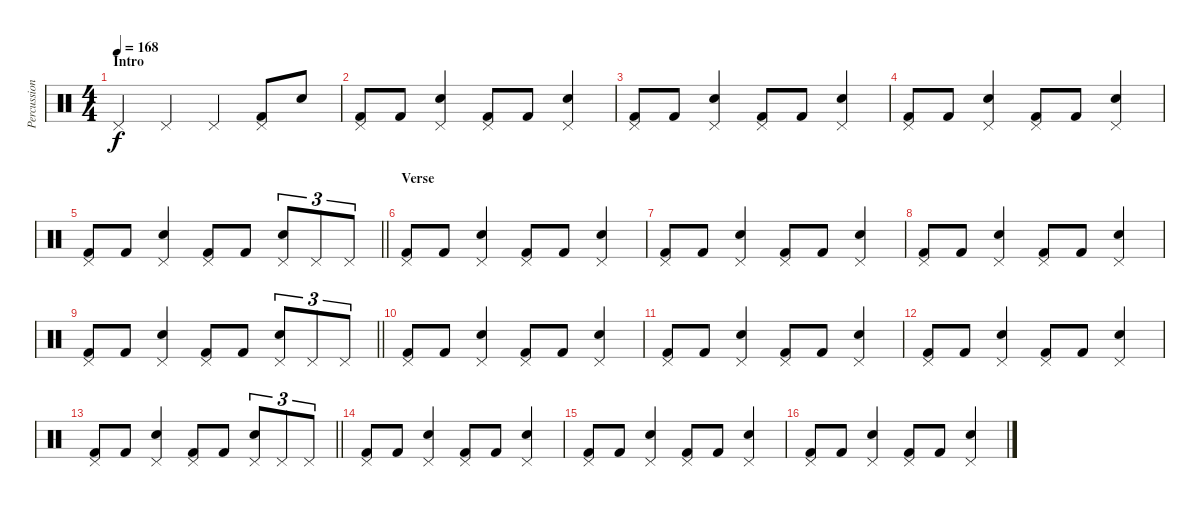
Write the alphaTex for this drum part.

\track ("Percussion" "Percussion") {instrument percussion}
\staff {score}
\articulation defaults
\ts (4 4)
\section ("" "Intro")
\tempo 168
\clef neutral
\ks c "Pedal Hi-Hat (hit)".4{dy f} "Pedal Hi-Hat (hit)".4 "Pedal Hi-Hat (hit)".4
("Pedal Hi-Hat (hit)" "Kick (hit) 2").8 "Electric Snare (hit)".8 |
("Pedal Hi-Hat (hit)" "Kick (hit) 2").8 "Kick (hit) 2".8 ("Pedal Hi-Hat (hit)" "Electric Snare (hit)").4 ("Pedal Hi-Hat (hit)" "Kick (hit) 2").8 "Kick (hit) 2".8 ("Pedal Hi-Hat (hit)" "Electric Snare (hit)").4 |
("Pedal Hi-Hat (hit)" "Kick (hit) 2").8 "Kick (hit) 2".8 ("Pedal Hi-Hat (hit)" "Electric Snare (hit)").4 ("Pedal Hi-Hat (hit)" "Kick (hit) 2").8 "Kick (hit) 2".8 ("Pedal Hi-Hat (hit)" "Electric Snare (hit)").4 |
("Pedal Hi-Hat (hit)" "Kick (hit) 2").8 "Kick (hit) 2".8 ("Pedal Hi-Hat (hit)" "Electric Snare (hit)").4 ("Pedal Hi-Hat (hit)" "Kick (hit) 2").8 "Kick (hit) 2".8 ("Pedal Hi-Hat (hit)" "Electric Snare (hit)").4 |
\barLineRight lightlight
("Pedal Hi-Hat (hit)" "Kick (hit) 2").8 "Kick (hit) 2".8 ("Pedal Hi-Hat (hit)" "Electric Snare (hit)").4 ("Pedal Hi-Hat (hit)" "Kick (hit) 2").8 "Kick (hit) 2".8 ("Pedal Hi-Hat (hit)" "Electric Snare (hit)").8{tu (3 2)} "Pedal Hi-Hat (hit)".8{tu (3 2)} "Pedal Hi-Hat (hit)".8{tu (3 2)} |
\section ("" "Verse")
("Pedal Hi-Hat (hit)" "Kick (hit) 2").8 "Kick (hit) 2".8 ("Pedal Hi-Hat (hit)" "Electric Snare (hit)").4 ("Pedal Hi-Hat (hit)" "Kick (hit) 2").8 "Kick (hit) 2".8 ("Pedal Hi-Hat (hit)" "Electric Snare (hit)").4 |
("Pedal Hi-Hat (hit)" "Kick (hit) 2").8 "Kick (hit) 2".8 ("Pedal Hi-Hat (hit)" "Electric Snare (hit)").4 ("Pedal Hi-Hat (hit)" "Kick (hit) 2").8 "Kick (hit) 2".8 ("Pedal Hi-Hat (hit)" "Electric Snare (hit)").4 |
("Pedal Hi-Hat (hit)" "Kick (hit) 2").8 "Kick (hit) 2".8 ("Pedal Hi-Hat (hit)" "Electric Snare (hit)").4 ("Pedal Hi-Hat (hit)" "Kick (hit) 2").8 "Kick (hit) 2".8 ("Pedal Hi-Hat (hit)" "Electric Snare (hit)").4 |
\barLineRight lightlight
("Pedal Hi-Hat (hit)" "Kick (hit) 2").8 "Kick (hit) 2".8 ("Pedal Hi-Hat (hit)" "Electric Snare (hit)").4 ("Pedal Hi-Hat (hit)" "Kick (hit) 2").8 "Kick (hit) 2".8 ("Pedal Hi-Hat (hit)" "Electric Snare (hit)").8{tu (3 2)} "Pedal Hi-Hat (hit)".8{tu (3 2)} "Pedal Hi-Hat (hit)".8{tu (3 2)} |
("Pedal Hi-Hat (hit)" "Kick (hit) 2").8 "Kick (hit) 2".8 ("Pedal Hi-Hat (hit)" "Electric Snare (hit)").4 ("Pedal Hi-Hat (hit)" "Kick (hit) 2").8 "Kick (hit) 2".8 ("Pedal Hi-Hat (hit)" "Electric Snare (hit)").4 |
("Pedal Hi-Hat (hit)" "Kick (hit) 2").8 "Kick (hit) 2".8 ("Pedal Hi-Hat (hit)" "Electric Snare (hit)").4 ("Pedal Hi-Hat (hit)" "Kick (hit) 2").8 "Kick (hit) 2".8 ("Pedal Hi-Hat (hit)" "Electric Snare (hit)").4 |
("Pedal Hi-Hat (hit)" "Kick (hit) 2").8 "Kick (hit) 2".8 ("Pedal Hi-Hat (hit)" "Electric Snare (hit)").4 ("Pedal Hi-Hat (hit)" "Kick (hit) 2").8 "Kick (hit) 2".8 ("Pedal Hi-Hat (hit)" "Electric Snare (hit)").4 |
\barLineRight lightlight
("Pedal Hi-Hat (hit)" "Kick (hit) 2").8 "Kick (hit) 2".8 ("Pedal Hi-Hat (hit)" "Electric Snare (hit)").4 ("Pedal Hi-Hat (hit)" "Kick (hit) 2").8 "Kick (hit) 2".8 ("Pedal Hi-Hat (hit)" "Electric Snare (hit)").8{tu (3 2)} "Pedal Hi-Hat (hit)".8{tu (3 2)} "Pedal Hi-Hat (hit)".8{tu (3 2)} |
("Pedal Hi-Hat (hit)" "Kick (hit) 2").8 "Kick (hit) 2".8 ("Pedal Hi-Hat (hit)" "Electric Snare (hit)").4 ("Pedal Hi-Hat (hit)" "Kick (hit) 2").8 "Kick (hit) 2".8 ("Pedal Hi-Hat (hit)" "Electric Snare (hit)").4 |
("Pedal Hi-Hat (hit)" "Kick (hit) 2").8 "Kick (hit) 2".8 ("Pedal Hi-Hat (hit)" "Electric Snare (hit)").4 ("Pedal Hi-Hat (hit)" "Kick (hit) 2").8 "Kick (hit) 2".8 ("Pedal Hi-Hat (hit)" "Electric Snare (hit)").4 |
("Pedal Hi-Hat (hit)" "Kick (hit) 2").8 "Kick (hit) 2".8 ("Pedal Hi-Hat (hit)" "Electric Snare (hit)").4 ("Pedal Hi-Hat (hit)" "Kick (hit) 2").8 "Kick (hit) 2".8 ("Pedal Hi-Hat (hit)" "Electric Snare (hit)").4
